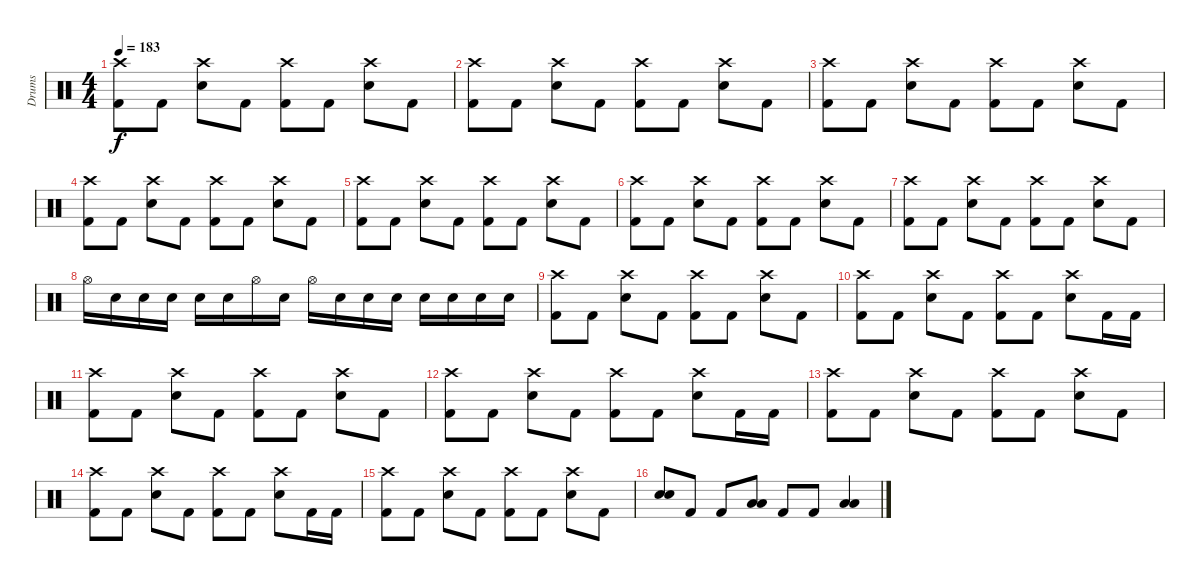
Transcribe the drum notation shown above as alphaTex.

\track ("Drums" "Drums") {instrument percussion}
\staff {score}
\articulation defaults
\ts (4 4)
\tempo 183
\clef neutral
\ks c
("Crash high (hit)" "Kick (hit) 2").8{dy f} "Kick (hit) 2".8 ("Crash high (hit)" "Electric Snare (hit)").8 "Kick (hit) 2".8 ("Crash high (hit)" "Kick (hit) 2").8 "Kick (hit) 2".8 ("Crash high (hit)" "Electric Snare (hit)").8 "Kick (hit) 2".8 |
("Crash high (hit)" "Kick (hit) 2").8 "Kick (hit) 2".8 ("Crash high (hit)" "Electric Snare (hit)").8 "Kick (hit) 2".8 ("Crash high (hit)" "Kick (hit) 2").8 "Kick (hit) 2".8 ("Crash high (hit)" "Electric Snare (hit)").8 "Kick (hit) 2".8 |
("Crash high (hit)" "Kick (hit) 2").8 "Kick (hit) 2".8 ("Crash high (hit)" "Electric Snare (hit)").8 "Kick (hit) 2".8 ("Crash high (hit)" "Kick (hit) 2").8 "Kick (hit) 2".8 ("Crash high (hit)" "Electric Snare (hit)").8 "Kick (hit) 2".8 |
("Crash high (hit)" "Kick (hit) 2").8 "Kick (hit) 2".8 ("Crash high (hit)" "Electric Snare (hit)").8 "Kick (hit) 2".8 ("Crash high (hit)" "Kick (hit) 2").8 "Kick (hit) 2".8 ("Crash high (hit)" "Electric Snare (hit)").8 "Kick (hit) 2".8 |
("Crash high (hit)" "Kick (hit) 2").8 "Kick (hit) 2".8 ("Crash high (hit)" "Electric Snare (hit)").8 "Kick (hit) 2".8 ("Crash high (hit)" "Kick (hit) 2").8 "Kick (hit) 2".8 ("Crash high (hit)" "Electric Snare (hit)").8 "Kick (hit) 2".8 |
("Crash high (hit)" "Kick (hit) 2").8 "Kick (hit) 2".8 ("Crash high (hit)" "Electric Snare (hit)").8 "Kick (hit) 2".8 ("Crash high (hit)" "Kick (hit) 2").8 "Kick (hit) 2".8 ("Crash high (hit)" "Electric Snare (hit)").8 "Kick (hit) 2".8 |
("Crash high (hit)" "Kick (hit) 2").8 "Kick (hit) 2".8 ("Crash high (hit)" "Electric Snare (hit)").8 "Kick (hit) 2".8 ("Crash high (hit)" "Kick (hit) 2").8 "Kick (hit) 2".8 ("Crash high (hit)" "Electric Snare (hit)").8 "Kick (hit) 2".8 |
"Hi-Hat (open)".16 "Electric Snare (hit)".16 "Electric Snare (hit)".16 "Electric Snare (hit)".16 "Electric Snare (hit)".16 "Electric Snare (hit)".16 "Hi-Hat (open)".16 "Electric Snare (hit)".16 "Hi-Hat (open)".16 "Electric Snare (hit)".16 "Electric Snare (hit)".16 "Electric Snare (hit)".16 "Electric Snare (hit)".16 "Electric Snare (hit)".16 "Electric Snare (hit)".16 "Electric Snare (hit)".16 |
("Crash high (hit)" "Kick (hit) 2").8 "Kick (hit) 2".8 ("Crash high (hit)" "Electric Snare (hit)").8 "Kick (hit) 2".8 ("Crash high (hit)" "Kick (hit) 2").8 "Kick (hit) 2".8 ("Crash high (hit)" "Electric Snare (hit)").8 "Kick (hit) 2".8 |
("Crash high (hit)" "Kick (hit) 2").8 "Kick (hit) 2".8 ("Crash high (hit)" "Electric Snare (hit)").8 "Kick (hit) 2".8 ("Crash high (hit)" "Kick (hit) 2").8 "Kick (hit) 2".8 ("Crash high (hit)" "Electric Snare (hit)").8 "Kick (hit) 2".16 "Kick (hit) 2".16 |
("Crash high (hit)" "Kick (hit) 2").8 "Kick (hit) 2".8 ("Crash high (hit)" "Electric Snare (hit)").8 "Kick (hit) 2".8 ("Crash high (hit)" "Kick (hit) 2").8 "Kick (hit) 2".8 ("Crash high (hit)" "Electric Snare (hit)").8 "Kick (hit) 2".8 |
("Crash high (hit)" "Kick (hit) 2").8 "Kick (hit) 2".8 ("Crash high (hit)" "Electric Snare (hit)").8 "Kick (hit) 2".8 ("Crash high (hit)" "Kick (hit) 2").8 "Kick (hit) 2".8 ("Crash high (hit)" "Electric Snare (hit)").8 "Kick (hit) 2".16 "Kick (hit) 2".16 |
("Crash high (hit)" "Kick (hit) 2").8 "Kick (hit) 2".8 ("Crash high (hit)" "Electric Snare (hit)").8 "Kick (hit) 2".8 ("Crash high (hit)" "Kick (hit) 2").8 "Kick (hit) 2".8 ("Crash high (hit)" "Electric Snare (hit)").8 "Kick (hit) 2".8 |
("Crash high (hit)" "Kick (hit) 2").8 "Kick (hit) 2".8 ("Crash high (hit)" "Electric Snare (hit)").8 "Kick (hit) 2".8 ("Crash high (hit)" "Kick (hit) 2").8 "Kick (hit) 2".8 ("Crash high (hit)" "Electric Snare (hit)").8 "Kick (hit) 2".16 "Kick (hit) 2".16 |
("Crash high (hit)" "Kick (hit) 2").8 "Kick (hit) 2".8 ("Crash high (hit)" "Electric Snare (hit)").8 "Kick (hit) 2".8 ("Crash high (hit)" "Kick (hit) 2").8 "Kick (hit) 2".8 ("Crash high (hit)" "Electric Snare (hit)").8 "Kick (hit) 2".8 |
("Electric Snare (hit)" "Electric Snare (hit)").8 "Kick (hit) 2".8 "Kick (hit) 2".8 ("Low Tom (hit)" "Low Tom (hit)").8 "Kick (hit) 2".8 "Kick (hit) 2".8 ("Low Tom (hit)" "Low Floor Tom (hit)").4
